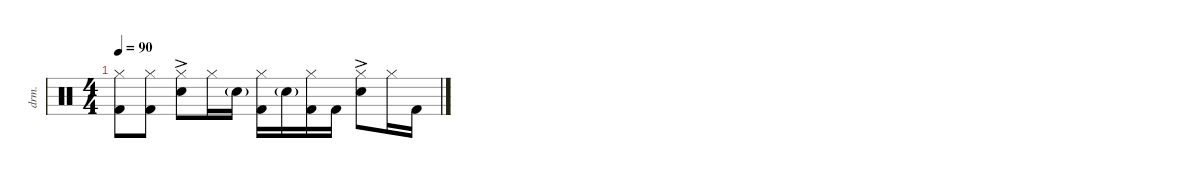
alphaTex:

\defaultSystemsLayout 4
\hideDynamics
\bracketExtendMode nobrackets
\track ("Drumkit" "drm.") {instrument percussion}
\staff {score}
\articulation defaults
\ts (4 4)
\tempo 90
\clef neutral
\ks c
("Hi-Hat (closed)" "Kick (hit) 2").8{dy mf beam Down} ("Hi-Hat (closed)" "Kick (hit) 2").8{beam Down} ("Hi-Hat (closed)" "Snare (hit) 2"{ac}).8{beam Down} "Hi-Hat (closed)".16{beam Down} "Snare (hit) 2"{g}.16{beam Down} ("Hi-Hat (closed)" "Kick (hit) 2").16{beam Down} "Snare (hit) 2"{g}.16{beam Down} ("Hi-Hat (closed)" "Kick (hit) 2").16{beam Down} "Kick (hit) 2".16{beam Down} ("Hi-Hat (closed)" "Snare (hit) 2"{ac}).8{beam Down} "Hi-Hat (closed)".16{beam Down} "Kick (hit) 2".16{beam Down}
